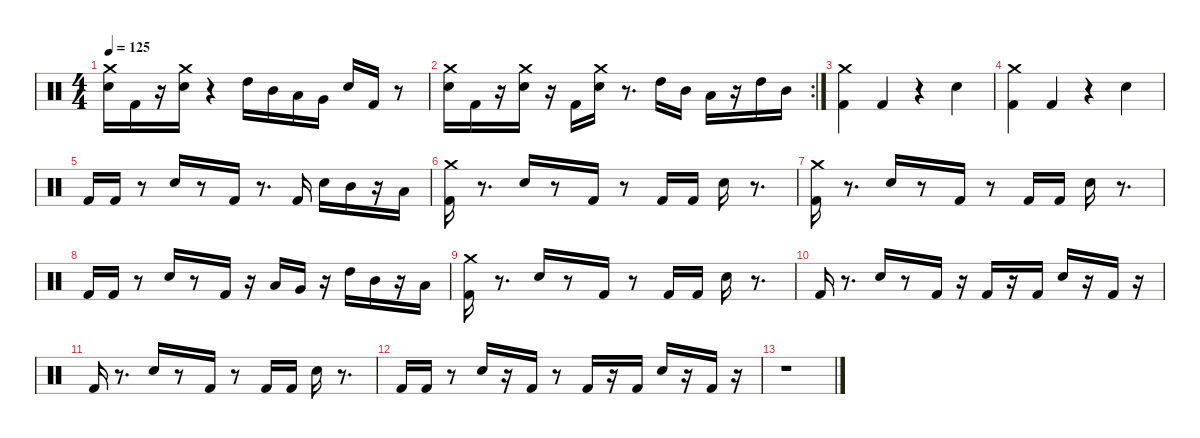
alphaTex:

\defaultSystemsLayout 4
\hideDynamics
\bracketExtendMode nobrackets
\singleTrackTrackNamePolicy hidden
\multiTrackTrackNamePolicy hidden
\firstSystemTrackNameMode fullname
\firstSystemTrackNameOrientation horizontal
\otherSystemsTrackNameOrientation horizontal
\track ("Bateria" "drm.") {instrument percussion}
\staff {score}
\articulation defaults
\ts (4 4)
\tempo 125
\clef neutral
\ks c
("Crash medium (hit)" "Snare (hit) 2").16{dy f beam Down} "Kick (hit) 2".16{beam Down} r.16{beam Down} ("Crash medium (hit)" "Snare (hit) 2").16{beam Down} r.4{beam Down} "High Tom (hit)".16{beam Down} "Mid Tom (hit)".16{beam Down} "Low Tom (hit)".16{beam Down} "Very Low Tom (hit)".16{beam Down} "Snare (hit) 2".16{beam Up} "Kick (hit) 2".16{beam Up} r.8{beam Up} |
\rc 2
("Crash medium (hit)" "Snare (hit) 2").16{beam Down} "Kick (hit) 2".16{beam Down} r.16{beam Down} ("Crash medium (hit)" "Snare (hit) 2").16{beam Down} r.16{beam Down} "Kick (hit) 2".16{beam Down} ("Crash medium (hit)" "Snare (hit) 2").16{beam Down} r.8{d beam Down} "High Tom (hit)".16{beam Down} "Mid Tom (hit)".16{beam Down} "Low Tom (hit)".16{beam Down} r.16{beam Down} "High Tom (hit)".16{beam Down} "Mid Tom (hit)".16{beam Down} |
("Crash medium (hit)" "Kick (hit) 2").4{beam Down} "Kick (hit) 2".4{beam Up} r.4{beam Up} "Snare (hit) 2".4{beam Down} |
("Crash medium (hit)" "Kick (hit) 2").4{beam Down} "Kick (hit) 2".4{beam Up} r.4{beam Up} "Snare (hit) 2".4{beam Down} |
"Kick (hit) 2".16{beam Up} "Kick (hit) 2".16{beam Up} r.8{beam Up} "Snare (hit) 2".16{beam Up} r.8{beam Up} "Kick (hit) 2".16{beam Up} r.8{d beam Up} "Kick (hit) 2".16{beam Up} "Snare (hit) 2".16{beam Down} "Mid Tom (hit)".16{beam Down} r.16{beam Down} "Low Tom (hit)".16{beam Down} |
("Crash medium (hit)" "Kick (hit) 2").16{beam Down} r.8{d beam Down} "Snare (hit) 2".16{beam Up} r.8{beam Up} "Kick (hit) 2".16{beam Up} r.8{beam Up} "Kick (hit) 2".16{beam Up} "Kick (hit) 2".16{beam Up} "Snare (hit) 2".16{beam Down} r.8{d beam Down} |
("Crash medium (hit)" "Kick (hit) 2").16{beam Down} r.8{d beam Down} "Snare (hit) 2".16{beam Up} r.8{beam Up} "Kick (hit) 2".16{beam Up} r.8{beam Up} "Kick (hit) 2".16{beam Up} "Kick (hit) 2".16{beam Up} "Snare (hit) 2".16{beam Down} r.8{d beam Down} |
"Kick (hit) 2".16{beam Up} "Kick (hit) 2".16{beam Up} r.8{beam Up} "Snare (hit) 2".16{beam Up} r.8{beam Up} "Kick (hit) 2".16{beam Up} r.16{beam Up} "Low Tom (hit)".16{beam Up} "Very Low Tom (hit)".16{beam Up} r.16{beam Up} "High Tom (hit)".16{beam Down} "Mid Tom (hit)".16{beam Down} r.16{beam Down} "Low Tom (hit)".16{beam Down} |
("Crash medium (hit)" "Kick (hit) 2").16{beam Down} r.8{d beam Down} "Snare (hit) 2".16{beam Up} r.8{beam Up} "Kick (hit) 2".16{beam Up} r.8{beam Up} "Kick (hit) 2".16{beam Up} "Kick (hit) 2".16{beam Up} "Snare (hit) 2".16{beam Down} r.8{d beam Down} |
"Kick (hit) 2".16{beam Up} r.8{d beam Up} "Snare (hit) 2".16{beam Up} r.8{beam Up} "Kick (hit) 2".16{beam Up} r.16{beam Up} "Kick (hit) 2".16{beam Up} r.16{beam Up} "Kick (hit) 2".16{beam Up} "Snare (hit) 2".16{beam Up} r.16{beam Up} "Kick (hit) 2".16{beam Up} r.16{beam Up} |
"Kick (hit) 2".16{beam Up} r.8{d beam Up} "Snare (hit) 2".16{beam Up} r.8{beam Up} "Kick (hit) 2".16{beam Up} r.8{beam Up} "Kick (hit) 2".16{beam Up} "Kick (hit) 2".16{beam Up} "Snare (hit) 2".16{beam Down} r.8{d beam Down} |
"Kick (hit) 2".16{beam Up} "Kick (hit) 2".16{beam Up} r.8{beam Up} "Snare (hit) 2".16{beam Up} r.16{beam Up} "Kick (hit) 2".16{beam Up} r.8{beam Up} "Kick (hit) 2".16{beam Up} r.16{beam Up} "Kick (hit) 2".16{beam Up} "Snare (hit) 2".16{beam Up} r.16{beam Up} "Kick (hit) 2".16{beam Up} r.16{beam Up} |
r.1{beam Down}
